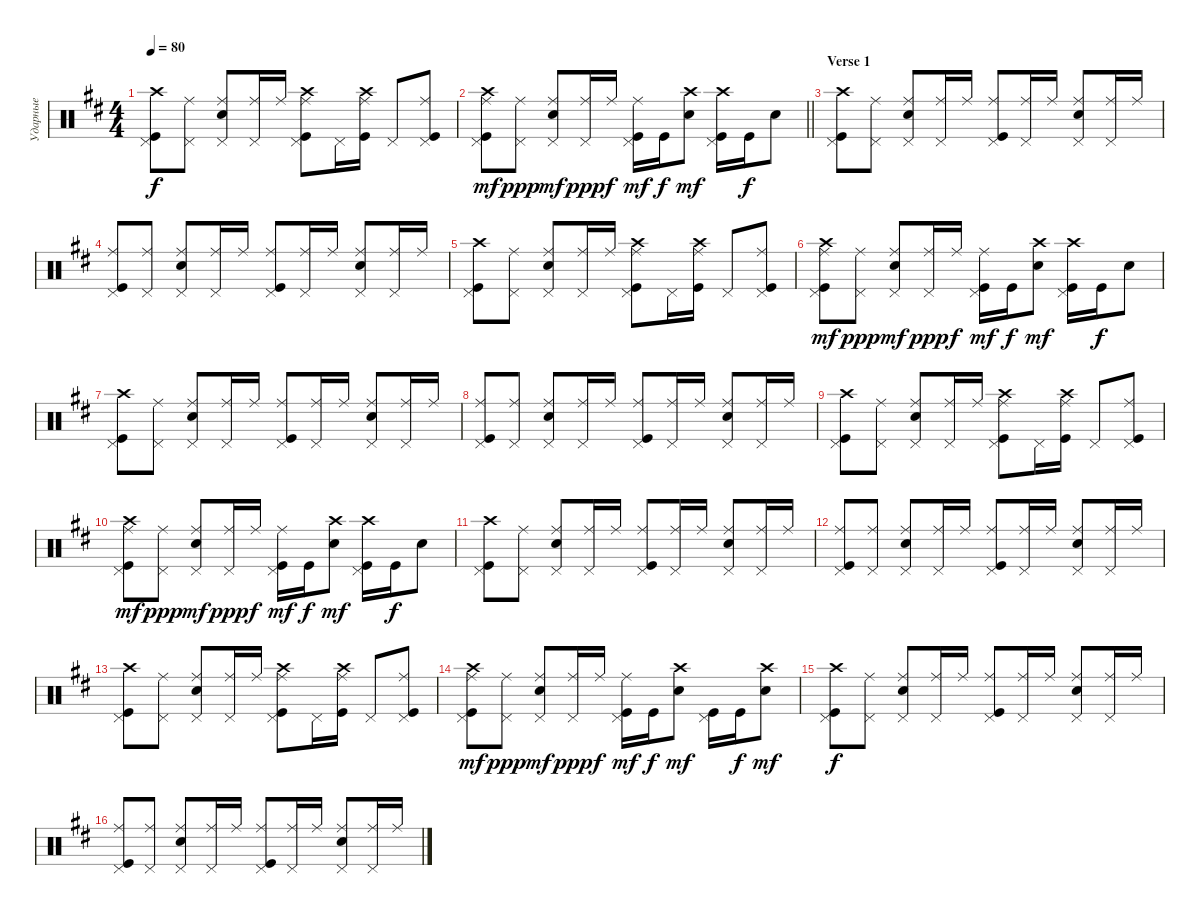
\track ("Ударные" "Ударные") {instrument percussion}
\staff {score}
\articulation defaults
\ts (4 4)
\tempo 80
\clef neutral
\ks bminor
("Crash high (hit)" "Kick (hit)" "Pedal Hi-Hat (hit)").8{dy f} ("Ride (middle)" "Pedal Hi-Hat (hit)").8 ("Snare (hit) 2" "Ride (middle)" "Pedal Hi-Hat (hit)").8 ("Ride (middle)" "Pedal Hi-Hat (hit)").16 "Ride (middle)".16 ("Kick (hit)" "Crash high (hit)" "Pedal Hi-Hat (hit)" "Ride (middle)").8 "Pedal Hi-Hat (hit)".16 ("Kick (hit)" "Crash high (hit)" "Ride (middle)").16 "Pedal Hi-Hat (hit)".8 ("Kick (hit)" "Ride (middle)" "Pedal Hi-Hat (hit)").8 |
\barLineRight lightlight
("Kick (hit)" "Crash high (hit)" "Pedal Hi-Hat (hit)" "Ride (middle)").8{dy mf} ("Ride (middle)" "Pedal Hi-Hat (hit)").8{dy ppp} ("Pedal Hi-Hat (hit)" "Snare (hit) 2" "Ride (middle)").8{dy mf} ("Ride (middle)" "Pedal Hi-Hat (hit)").16{dy ppp} "Ride (middle)".16{dy f} ("Kick (hit)" "Pedal Hi-Hat (hit)" "Ride (middle)").16{dy mf} "Kick (hit)".16{dy f} ("Snare (hit) 2" "Crash high (hit)").8{dy mf} ("Kick (hit)" "Pedal Hi-Hat (hit)" "Crash high (hit)").16 "Kick (hit)".16{dy f} "Snare (hit) 2".8 |
\section ("" "Verse 1")
("Crash high (hit)" "Kick (hit)" "Pedal Hi-Hat (hit)").8 ("Ride (middle)" "Pedal Hi-Hat (hit)").8 ("Snare (hit) 2" "Ride (middle)" "Pedal Hi-Hat (hit)").8 ("Ride (middle)" "Pedal Hi-Hat (hit)").16 "Ride (middle)".16 ("Kick (hit)" "Ride (middle)" "Pedal Hi-Hat (hit)").8 ("Ride (middle)" "Pedal Hi-Hat (hit)").16 "Ride (middle)".16 ("Snare (hit) 2" "Ride (middle)" "Pedal Hi-Hat (hit)").8 ("Ride (middle)" "Pedal Hi-Hat (hit)").16 "Ride (middle)".16 |
("Ride (middle)" "Kick (hit)" "Pedal Hi-Hat (hit)").8 ("Ride (middle)" "Pedal Hi-Hat (hit)").8 ("Snare (hit) 2" "Ride (middle)" "Pedal Hi-Hat (hit)").8 ("Ride (middle)" "Pedal Hi-Hat (hit)").16 "Ride (middle)".16 ("Kick (hit)" "Ride (middle)" "Pedal Hi-Hat (hit)").8 ("Ride (middle)" "Pedal Hi-Hat (hit)").16 "Ride (middle)".16 ("Snare (hit) 2" "Ride (middle)" "Pedal Hi-Hat (hit)").8 ("Ride (middle)" "Pedal Hi-Hat (hit)").16 "Ride (middle)".16 |
("Crash high (hit)" "Kick (hit)" "Pedal Hi-Hat (hit)").8 ("Ride (middle)" "Pedal Hi-Hat (hit)").8 ("Snare (hit) 2" "Ride (middle)" "Pedal Hi-Hat (hit)").8 ("Ride (middle)" "Pedal Hi-Hat (hit)").16 "Ride (middle)".16 ("Kick (hit)" "Crash high (hit)" "Pedal Hi-Hat (hit)" "Ride (middle)").8 "Pedal Hi-Hat (hit)".16 ("Kick (hit)" "Crash high (hit)" "Ride (middle)").16 "Pedal Hi-Hat (hit)".8 ("Kick (hit)" "Ride (middle)" "Pedal Hi-Hat (hit)").8 |
("Kick (hit)" "Crash high (hit)" "Pedal Hi-Hat (hit)" "Ride (middle)").8{dy mf} ("Ride (middle)" "Pedal Hi-Hat (hit)").8{dy ppp} ("Pedal Hi-Hat (hit)" "Snare (hit) 2" "Ride (middle)").8{dy mf} ("Ride (middle)" "Pedal Hi-Hat (hit)").16{dy ppp} "Ride (middle)".16{dy f} ("Kick (hit)" "Pedal Hi-Hat (hit)" "Ride (middle)").16{dy mf} "Kick (hit)".16{dy f} ("Snare (hit) 2" "Crash high (hit)").8{dy mf} ("Kick (hit)" "Pedal Hi-Hat (hit)" "Crash high (hit)").16 "Kick (hit)".16{dy f} "Snare (hit) 2".8 |
("Crash high (hit)" "Kick (hit)" "Pedal Hi-Hat (hit)").8 ("Ride (middle)" "Pedal Hi-Hat (hit)").8 ("Snare (hit) 2" "Ride (middle)" "Pedal Hi-Hat (hit)").8 ("Ride (middle)" "Pedal Hi-Hat (hit)").16 "Ride (middle)".16 ("Kick (hit)" "Ride (middle)" "Pedal Hi-Hat (hit)").8 ("Ride (middle)" "Pedal Hi-Hat (hit)").16 "Ride (middle)".16 ("Snare (hit) 2" "Ride (middle)" "Pedal Hi-Hat (hit)").8 ("Ride (middle)" "Pedal Hi-Hat (hit)").16 "Ride (middle)".16 |
("Ride (middle)" "Kick (hit)" "Pedal Hi-Hat (hit)").8 ("Ride (middle)" "Pedal Hi-Hat (hit)").8 ("Snare (hit) 2" "Ride (middle)" "Pedal Hi-Hat (hit)").8 ("Ride (middle)" "Pedal Hi-Hat (hit)").16 "Ride (middle)".16 ("Kick (hit)" "Ride (middle)" "Pedal Hi-Hat (hit)").8 ("Ride (middle)" "Pedal Hi-Hat (hit)").16 "Ride (middle)".16 ("Snare (hit) 2" "Ride (middle)" "Pedal Hi-Hat (hit)").8 ("Ride (middle)" "Pedal Hi-Hat (hit)").16 "Ride (middle)".16 |
("Crash high (hit)" "Kick (hit)" "Pedal Hi-Hat (hit)").8 ("Ride (middle)" "Pedal Hi-Hat (hit)").8 ("Snare (hit) 2" "Ride (middle)" "Pedal Hi-Hat (hit)").8 ("Ride (middle)" "Pedal Hi-Hat (hit)").16 "Ride (middle)".16 ("Kick (hit)" "Crash high (hit)" "Pedal Hi-Hat (hit)" "Ride (middle)").8 "Pedal Hi-Hat (hit)".16 ("Kick (hit)" "Crash high (hit)" "Ride (middle)").16 "Pedal Hi-Hat (hit)".8 ("Kick (hit)" "Ride (middle)" "Pedal Hi-Hat (hit)").8 |
("Kick (hit)" "Crash high (hit)" "Pedal Hi-Hat (hit)" "Ride (middle)").8{dy mf} ("Ride (middle)" "Pedal Hi-Hat (hit)").8{dy ppp} ("Pedal Hi-Hat (hit)" "Snare (hit) 2" "Ride (middle)").8{dy mf} ("Ride (middle)" "Pedal Hi-Hat (hit)").16{dy ppp} "Ride (middle)".16{dy f} ("Kick (hit)" "Pedal Hi-Hat (hit)" "Ride (middle)").16{dy mf} "Kick (hit)".16{dy f} ("Snare (hit) 2" "Crash high (hit)").8{dy mf} ("Kick (hit)" "Pedal Hi-Hat (hit)" "Crash high (hit)").16 "Kick (hit)".16{dy f} "Snare (hit) 2".8 |
("Crash high (hit)" "Kick (hit)" "Pedal Hi-Hat (hit)").8 ("Ride (middle)" "Pedal Hi-Hat (hit)").8 ("Snare (hit) 2" "Ride (middle)" "Pedal Hi-Hat (hit)").8 ("Ride (middle)" "Pedal Hi-Hat (hit)").16 "Ride (middle)".16 ("Kick (hit)" "Ride (middle)" "Pedal Hi-Hat (hit)").8 ("Ride (middle)" "Pedal Hi-Hat (hit)").16 "Ride (middle)".16 ("Snare (hit) 2" "Ride (middle)" "Pedal Hi-Hat (hit)").8 ("Ride (middle)" "Pedal Hi-Hat (hit)").16 "Ride (middle)".16 |
("Ride (middle)" "Kick (hit)" "Pedal Hi-Hat (hit)").8 ("Ride (middle)" "Pedal Hi-Hat (hit)").8 ("Snare (hit) 2" "Ride (middle)" "Pedal Hi-Hat (hit)").8 ("Ride (middle)" "Pedal Hi-Hat (hit)").16 "Ride (middle)".16 ("Kick (hit)" "Ride (middle)" "Pedal Hi-Hat (hit)").8 ("Ride (middle)" "Pedal Hi-Hat (hit)").16 "Ride (middle)".16 ("Snare (hit) 2" "Ride (middle)" "Pedal Hi-Hat (hit)").8 ("Ride (middle)" "Pedal Hi-Hat (hit)").16 "Ride (middle)".16 |
("Crash high (hit)" "Kick (hit)" "Pedal Hi-Hat (hit)").8 ("Ride (middle)" "Pedal Hi-Hat (hit)").8 ("Snare (hit) 2" "Ride (middle)" "Pedal Hi-Hat (hit)").8 ("Ride (middle)" "Pedal Hi-Hat (hit)").16 "Ride (middle)".16 ("Kick (hit)" "Crash high (hit)" "Pedal Hi-Hat (hit)" "Ride (middle)").8 "Pedal Hi-Hat (hit)".16 ("Kick (hit)" "Crash high (hit)" "Ride (middle)").16 "Pedal Hi-Hat (hit)".8 ("Kick (hit)" "Ride (middle)" "Pedal Hi-Hat (hit)").8 |
("Kick (hit)" "Crash high (hit)" "Pedal Hi-Hat (hit)" "Ride (middle)").8{dy mf} ("Ride (middle)" "Pedal Hi-Hat (hit)").8{dy ppp} ("Pedal Hi-Hat (hit)" "Snare (hit) 2" "Ride (middle)").8{dy mf} ("Ride (middle)" "Pedal Hi-Hat (hit)").16{dy ppp} "Ride (middle)".16{dy f} ("Kick (hit)" "Pedal Hi-Hat (hit)" "Ride (middle)").16{dy mf} "Kick (hit)".16{dy f} ("Snare (hit) 2" "Crash high (hit)").8{dy mf} ("Kick (hit)" "Pedal Hi-Hat (hit)").16 "Kick (hit)".16{dy f} ("Snare (hit) 2" "Crash high (hit)").8{dy mf} |
("Crash high (hit)" "Kick (hit)" "Pedal Hi-Hat (hit)").8{dy f} ("Ride (middle)" "Pedal Hi-Hat (hit)").8 ("Snare (hit) 2" "Ride (middle)" "Pedal Hi-Hat (hit)").8 ("Ride (middle)" "Pedal Hi-Hat (hit)").16 "Ride (middle)".16 ("Kick (hit)" "Ride (middle)" "Pedal Hi-Hat (hit)").8 ("Ride (middle)" "Pedal Hi-Hat (hit)").16 "Ride (middle)".16 ("Snare (hit) 2" "Ride (middle)" "Pedal Hi-Hat (hit)").8 ("Ride (middle)" "Pedal Hi-Hat (hit)").16 "Ride (middle)".16 |
("Ride (middle)" "Kick (hit)" "Pedal Hi-Hat (hit)").8 ("Ride (middle)" "Pedal Hi-Hat (hit)").8 ("Snare (hit) 2" "Ride (middle)" "Pedal Hi-Hat (hit)").8 ("Ride (middle)" "Pedal Hi-Hat (hit)").16 "Ride (middle)".16 ("Kick (hit)" "Ride (middle)" "Pedal Hi-Hat (hit)").8 ("Ride (middle)" "Pedal Hi-Hat (hit)").16 "Ride (middle)".16 ("Snare (hit) 2" "Ride (middle)" "Pedal Hi-Hat (hit)").8 ("Ride (middle)" "Pedal Hi-Hat (hit)").16 "Ride (middle)".16
